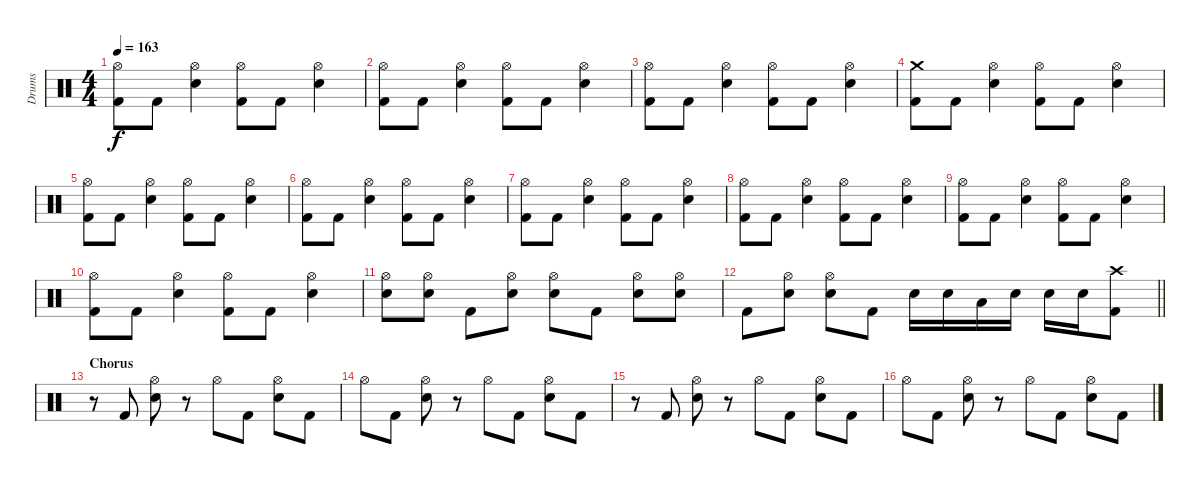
\track ("Drums" "Drums") {instrument percussion}
\staff {score}
\articulation defaults
\ts (4 4)
\tempo 163
\clef neutral
\ks c
("Hi-Hat (open)" "Kick (hit) 2").8{dy f} "Kick (hit) 2".8 ("Hi-Hat (open)" "Snare (hit) 2").4 ("Hi-Hat (open)" "Kick (hit) 2").8 "Kick (hit) 2".8 ("Hi-Hat (open)" "Snare (hit) 2").4 |
("Hi-Hat (open)" "Kick (hit) 2").8 "Kick (hit) 2".8 ("Hi-Hat (open)" "Snare (hit) 2").4 ("Hi-Hat (open)" "Kick (hit) 2").8 "Kick (hit) 2".8 ("Hi-Hat (open)" "Snare (hit) 2").4 |
("Hi-Hat (open)" "Kick (hit) 2").8 "Kick (hit) 2".8 ("Hi-Hat (open)" "Snare (hit) 2").4 ("Hi-Hat (open)" "Kick (hit) 2").8 "Kick (hit) 2".8 ("Hi-Hat (open)" "Snare (hit) 2").4 |
("Crash medium (hit)" "Kick (hit) 2").8 "Kick (hit) 2".8 ("Hi-Hat (open)" "Snare (hit) 2").4 ("Hi-Hat (open)" "Kick (hit) 2").8 "Kick (hit) 2".8 ("Hi-Hat (open)" "Snare (hit) 2").4 |
("Hi-Hat (open)" "Kick (hit) 2").8 "Kick (hit) 2".8 ("Hi-Hat (open)" "Snare (hit) 2").4 ("Hi-Hat (open)" "Kick (hit) 2").8 "Kick (hit) 2".8 ("Hi-Hat (open)" "Snare (hit) 2").4 |
("Hi-Hat (open)" "Kick (hit) 2").8 "Kick (hit) 2".8 ("Hi-Hat (open)" "Snare (hit) 2").4 ("Hi-Hat (open)" "Kick (hit) 2").8 "Kick (hit) 2".8 ("Hi-Hat (open)" "Snare (hit) 2").4 |
("Hi-Hat (open)" "Kick (hit) 2").8 "Kick (hit) 2".8 ("Hi-Hat (open)" "Snare (hit) 2").4 ("Hi-Hat (open)" "Kick (hit) 2").8 "Kick (hit) 2".8 ("Hi-Hat (open)" "Snare (hit) 2").4 |
("Hi-Hat (open)" "Kick (hit) 2").8 "Kick (hit) 2".8 ("Hi-Hat (open)" "Snare (hit) 2").4 ("Hi-Hat (open)" "Kick (hit) 2").8 "Kick (hit) 2".8 ("Hi-Hat (open)" "Snare (hit) 2").4 |
("Hi-Hat (open)" "Kick (hit) 2").8 "Kick (hit) 2".8 ("Hi-Hat (open)" "Snare (hit) 2").4 ("Hi-Hat (open)" "Kick (hit) 2").8 "Kick (hit) 2".8 ("Hi-Hat (open)" "Snare (hit) 2").4 |
("Hi-Hat (open)" "Kick (hit) 2").8 "Kick (hit) 2".8 ("Hi-Hat (open)" "Snare (hit) 2").4 ("Hi-Hat (open)" "Kick (hit) 2").8 "Kick (hit) 2".8 ("Hi-Hat (open)" "Snare (hit) 2").4 |
("Hi-Hat (open)" "Snare (hit) 2").8 ("Hi-Hat (open)" "Snare (hit) 2").8 "Kick (hit) 2".8 ("Hi-Hat (open)" "Snare (hit) 2").8 ("Hi-Hat (open)" "Snare (hit) 2").8 "Kick (hit) 2".8 ("Hi-Hat (open)" "Snare (hit) 2").8 ("Hi-Hat (open)" "Snare (hit) 2").8 |
\barLineRight lightlight "Kick (hit) 2".8
("Hi-Hat (open)" "Snare (hit) 2").8 ("Hi-Hat (open)" "Snare (hit) 2").8 "Kick (hit) 2".8 "Snare (hit) 2".16 "Snare (hit) 2".16 "Low Tom (hit)".16 "Snare (hit) 2".16 "Snare (hit) 2".16 "Snare (hit) 2".16 ("Crash high (hit)" "Kick (hit) 2").8 |
\section ("" "Chorus")
r.8 "Kick (hit) 2".8 ("Hi-Hat (open)" "Snare (hit) 2").8 r.8 "Hi-Hat (open)".8 "Kick (hit) 2".8 ("Hi-Hat (open)" "Snare (hit) 2").8 "Kick (hit) 2".8 |
"Hi-Hat (open)".8 "Kick (hit) 2".8 ("Hi-Hat (open)" "Snare (hit) 2").8 r.8 "Hi-Hat (open)".8 "Kick (hit) 2".8 ("Hi-Hat (open)" "Snare (hit) 2").8 "Kick (hit) 2".8 |
r.8 "Kick (hit) 2".8 ("Hi-Hat (open)" "Snare (hit) 2").8 r.8 "Hi-Hat (open)".8 "Kick (hit) 2".8 ("Hi-Hat (open)" "Snare (hit) 2").8 "Kick (hit) 2".8 |
"Hi-Hat (open)".8 "Kick (hit) 2".8 ("Hi-Hat (open)" "Snare (hit) 2").8 r.8 "Hi-Hat (open)".8 "Kick (hit) 2".8 ("Hi-Hat (open)" "Snare (hit) 2").8 "Kick (hit) 2".8
